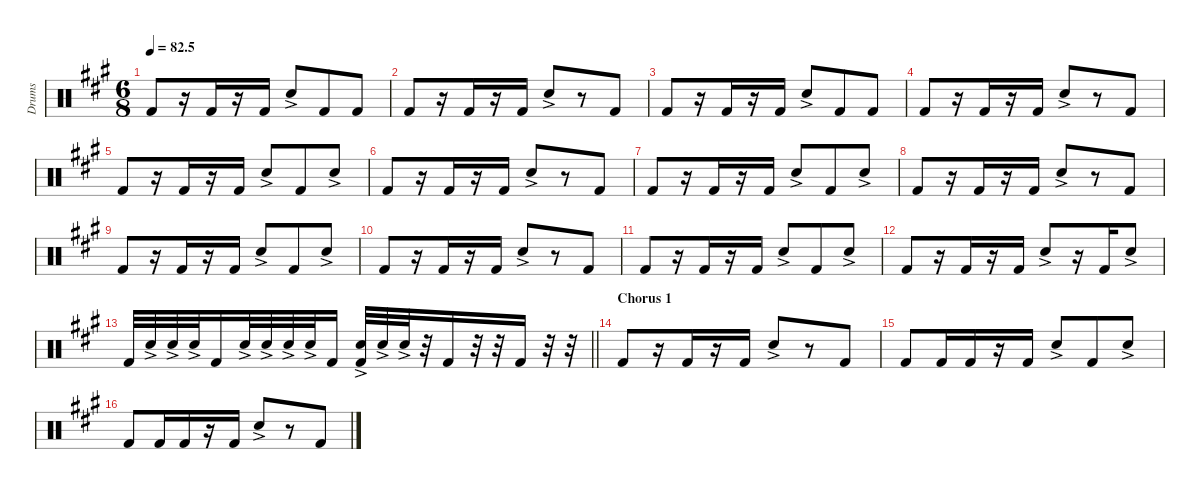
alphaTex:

\defaultSystemsLayout 4
\hideDynamics
\bracketExtendMode nobrackets
\otherSystemsTrackNameOrientation horizontal
\track ("F&S" "Drums") {instrument percussion}
\staff {score}
\articulation defaults
\ts (6 8)
\tempo
82.5
\accidentals auto
\clef neutral
\ottava regular
\simile none
\scale
0.333333
\ks a "Kick (hit) 2"{acc forcenatural}.8{dy f}
r.16 "Kick (hit) 2"{acc forcenatural}.16 r.16 "Kick (hit) 2"{acc forcenatural}.16 "Snare (hit) 2"{ac acc forcenatural}.8 "Kick (hit) 2"{acc forcenatural}.8 "Kick (hit) 2"{acc forcenatural}.8 |
\scale
0.333333 "Kick (hit) 2"{acc forcenatural}.8 r.16 "Kick (hit) 2"{acc forcenatural}.16 r.16 "Kick (hit) 2"{acc forcenatural}.16 "Snare (hit) 2"{ac acc forcenatural}.8 r.8 "Kick (hit) 2"{acc forcenatural}.8 |
\scale
0.333333 "Kick (hit) 2"{acc forcenatural}.8 r.16 "Kick (hit) 2"{acc forcenatural}.16 r.16 "Kick (hit) 2"{acc forcenatural}.16 "Snare (hit) 2"{ac acc forcenatural}.8 "Kick (hit) 2"{acc forcenatural}.8 "Kick (hit) 2"{acc forcenatural}.8 |
\scale
0.333333 "Kick (hit) 2"{acc forcenatural}.8 r.16 "Kick (hit) 2"{acc forcenatural}.16 r.16 "Kick (hit) 2"{acc forcenatural}.16 "Snare (hit) 2"{ac acc forcenatural}.8 r.8 "Kick (hit) 2"{acc forcenatural}.8 |
\scale
0.333333 "Kick (hit) 2"{acc forcenatural}.8 r.16 "Kick (hit) 2"{acc forcenatural}.16 r.16 "Kick (hit) 2"{acc forcenatural}.16 "Snare (hit) 2"{ac acc forcenatural}.8 "Kick (hit) 2"{acc forcenatural}.8 "Snare (hit) 2"{ac acc forcenatural}.8 |
\scale
0.333333 "Kick (hit) 2"{acc forcenatural}.8 r.16 "Kick (hit) 2"{acc forcenatural}.16 r.16 "Kick (hit) 2"{acc forcenatural}.16 "Snare (hit) 2"{ac acc forcenatural}.8 r.8 "Kick (hit) 2"{acc forcenatural}.8 |
\scale
0.333333 "Kick (hit) 2"{acc forcenatural}.8 r.16 "Kick (hit) 2"{acc forcenatural}.16 r.16 "Kick (hit) 2"{acc forcenatural}.16 "Snare (hit) 2"{ac acc forcenatural}.8 "Kick (hit) 2"{acc forcenatural}.8 "Snare (hit) 2"{ac acc forcenatural}.8 |
\scale
0.333333 "Kick (hit) 2"{acc forcenatural}.8 r.16 "Kick (hit) 2"{acc forcenatural}.16 r.16 "Kick (hit) 2"{acc forcenatural}.16 "Snare (hit) 2"{ac acc forcenatural}.8 r.8 "Kick (hit) 2"{acc forcenatural}.8 |
\scale
0.333333 "Kick (hit) 2"{acc forcenatural}.8 r.16 "Kick (hit) 2"{acc forcenatural}.16 r.16 "Kick (hit) 2"{acc forcenatural}.16 "Snare (hit) 2"{ac acc forcenatural}.8 "Kick (hit) 2"{acc forcenatural}.8 "Snare (hit) 2"{ac acc forcenatural}.8 |
\scale
0.333333 "Kick (hit) 2"{acc forcenatural}.8 r.16 "Kick (hit) 2"{acc forcenatural}.16 r.16 "Kick (hit) 2"{acc forcenatural}.16 "Snare (hit) 2"{ac acc forcenatural}.8 r.8 "Kick (hit) 2"{acc forcenatural}.8 |
\scale
0.333333 "Kick (hit) 2"{acc forcenatural}.8 r.16 "Kick (hit) 2"{acc forcenatural}.16 r.16 "Kick (hit) 2"{acc forcenatural}.16 "Snare (hit) 2"{ac acc forcenatural}.8 "Kick (hit) 2"{acc forcenatural}.8 "Snare (hit) 2"{ac acc forcenatural}.8 |
\scale
0.333333 "Kick (hit) 2"{acc forcenatural}.8 r.16 "Kick (hit) 2"{acc forcenatural}.16 r.16 "Kick (hit) 2"{acc forcenatural}.16 "Snare (hit) 2"{ac acc forcenatural}.8 r.16 "Kick (hit) 2"{acc forcenatural}.16 "Snare (hit) 2"{ac acc forcenatural}.8 |
\scale
0.333333
\barLineRight lightlight "Kick (hit) 2"{acc forcenatural}.32 "Snare (hit) 2"{ac acc forcenatural}.32 "Snare (hit) 2"{ac acc forcenatural}.32 "Snare (hit) 2"{ac acc forcenatural}.32 "Kick (hit) 2"{acc forcenatural}.16 "Snare (hit) 2"{ac acc forcenatural}.32 "Snare (hit) 2"{ac acc forcenatural}.32 "Snare (hit) 2"{ac acc forcenatural}.32 "Snare (hit) 2"{ac acc forcenatural}.32 "Kick (hit) 2"{acc forcenatural}.16
("Snare (hit) 2"{ac acc forcenatural} "Kick (hit) 2"{acc forcenatural}).32 "Snare (hit) 2"{ac acc forcenatural}.32 "Snare (hit) 2"{ac acc forcenatural}.32 r.32 "Kick (hit) 2"{acc forcenatural}.16 r.32 r.32 "Kick (hit) 2"{acc forcenatural}.16 r.32 r.32 |
\section ("" "Chorus 1")
\scale
0.333333 "Kick (hit) 2"{acc forcenatural}.8 r.16 "Kick (hit) 2"{acc forcenatural}.16 r.16 "Kick (hit) 2"{acc forcenatural}.16 "Snare (hit) 2"{ac acc forcenatural}.8 r.8 "Kick (hit) 2"{acc forcenatural}.8 |
\scale
0.333333 "Kick (hit) 2"{acc forcenatural}.8 "Kick (hit) 2"{acc forcenatural}.16 "Kick (hit) 2"{acc forcenatural}.16 r.16 "Kick (hit) 2"{acc forcenatural}.16 "Snare (hit) 2"{ac acc forcenatural}.8 "Kick (hit) 2"{acc forcenatural}.8 "Snare (hit) 2"{ac acc forcenatural}.8 |
\scale
0.333333 "Kick (hit) 2"{acc forcenatural}.8 "Kick (hit) 2"{acc forcenatural}.16 "Kick (hit) 2"{acc forcenatural}.16 r.16 "Kick (hit) 2"{acc forcenatural}.16 "Snare (hit) 2"{ac acc forcenatural}.8 r.8 "Kick (hit) 2"{acc forcenatural}.8
